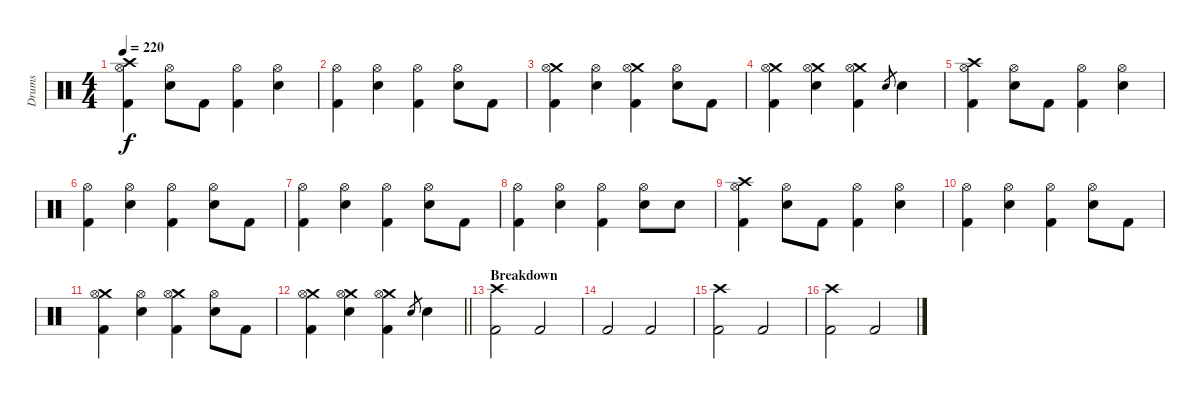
\track ("Drums" "Drums") {instrument percussion}
\staff {score}
\articulation defaults
\ts (4 4)
\tempo 220
\clef neutral
\ks c
("Crash high (hit)" "Hi-Hat (open)" "Kick (hit) 2").4{dy f} ("Hi-Hat (open)" "Snare (hit) 2").8 "Kick (hit) 2".8 ("Hi-Hat (open)" "Kick (hit) 2").4 ("Hi-Hat (open)" "Snare (hit) 2").4 |
("Hi-Hat (open)" "Kick (hit) 2").4 ("Hi-Hat (open)" "Snare (hit) 2").4 ("Hi-Hat (open)" "Kick (hit) 2").4 ("Hi-Hat (open)" "Snare (hit) 2").8 "Kick (hit) 2".8 |
("Crash medium (hit)" "Hi-Hat (open)" "Kick (hit) 2").4 ("Hi-Hat (open)" "Snare (hit) 2").4 ("Crash medium (hit)" "Hi-Hat (open)" "Kick (hit) 2").4 ("Hi-Hat (open)" "Snare (hit) 2").8 "Kick (hit) 2".8 |
("Crash medium (hit)" "Hi-Hat (open)" "Kick (hit) 2").4 ("Crash medium (hit)" "Hi-Hat (open)" "Snare (hit) 2").4 ("Crash medium (hit)" "Hi-Hat (open)" "Kick (hit) 2").4 "Snare (hit) 2".8{gr} "Snare (hit) 2".4 |
("Crash high (hit)" "Hi-Hat (open)" "Kick (hit) 2").4 ("Hi-Hat (open)" "Snare (hit) 2").8 "Kick (hit) 2".8 ("Hi-Hat (open)" "Kick (hit) 2").4 ("Hi-Hat (open)" "Snare (hit) 2").4 |
("Hi-Hat (open)" "Kick (hit) 2").4 ("Hi-Hat (open)" "Snare (hit) 2").4 ("Hi-Hat (open)" "Kick (hit) 2").4 ("Hi-Hat (open)" "Snare (hit) 2").8 "Kick (hit) 2".8 |
("Hi-Hat (open)" "Kick (hit) 2").4 ("Hi-Hat (open)" "Snare (hit) 2").4 ("Hi-Hat (open)" "Kick (hit) 2").4 ("Hi-Hat (open)" "Snare (hit) 2").8 "Kick (hit) 2".8 |
("Hi-Hat (open)" "Kick (hit) 2").4 ("Hi-Hat (open)" "Snare (hit) 2").4 ("Hi-Hat (open)" "Kick (hit) 2").4 ("Hi-Hat (open)" "Snare (hit) 2").8 "Snare (hit) 2".8 |
("Crash high (hit)" "Hi-Hat (open)" "Kick (hit) 2").4 ("Hi-Hat (open)" "Snare (hit) 2").8 "Kick (hit) 2".8 ("Hi-Hat (open)" "Kick (hit) 2").4 ("Hi-Hat (open)" "Snare (hit) 2").4 |
("Hi-Hat (open)" "Kick (hit) 2").4 ("Hi-Hat (open)" "Snare (hit) 2").4 ("Hi-Hat (open)" "Kick (hit) 2").4 ("Hi-Hat (open)" "Snare (hit) 2").8 "Kick (hit) 2".8 |
("Crash medium (hit)" "Hi-Hat (open)" "Kick (hit) 2").4 ("Hi-Hat (open)" "Snare (hit) 2").4 ("Crash medium (hit)" "Hi-Hat (open)" "Kick (hit) 2").4 ("Hi-Hat (open)" "Snare (hit) 2").8 "Kick (hit) 2".8 |
\barLineRight lightlight
("Crash medium (hit)" "Hi-Hat (open)" "Kick (hit) 2").4 ("Crash medium (hit)" "Hi-Hat (open)" "Snare (hit) 2").4 ("Crash medium (hit)" "Hi-Hat (open)" "Kick (hit) 2").4 "Snare (hit) 2".8{gr} "Snare (hit) 2".4 |
\section ("" "Breakdown")
("Crash high (hit)" "Kick (hit) 2").2 "Kick (hit) 2".2 |
"Kick (hit) 2".2 "Kick (hit) 2".2 |
("Crash high (hit)" "Kick (hit) 2").2 "Kick (hit) 2".2 |
("Crash high (hit)" "Kick (hit) 2").2 "Kick (hit) 2".2
